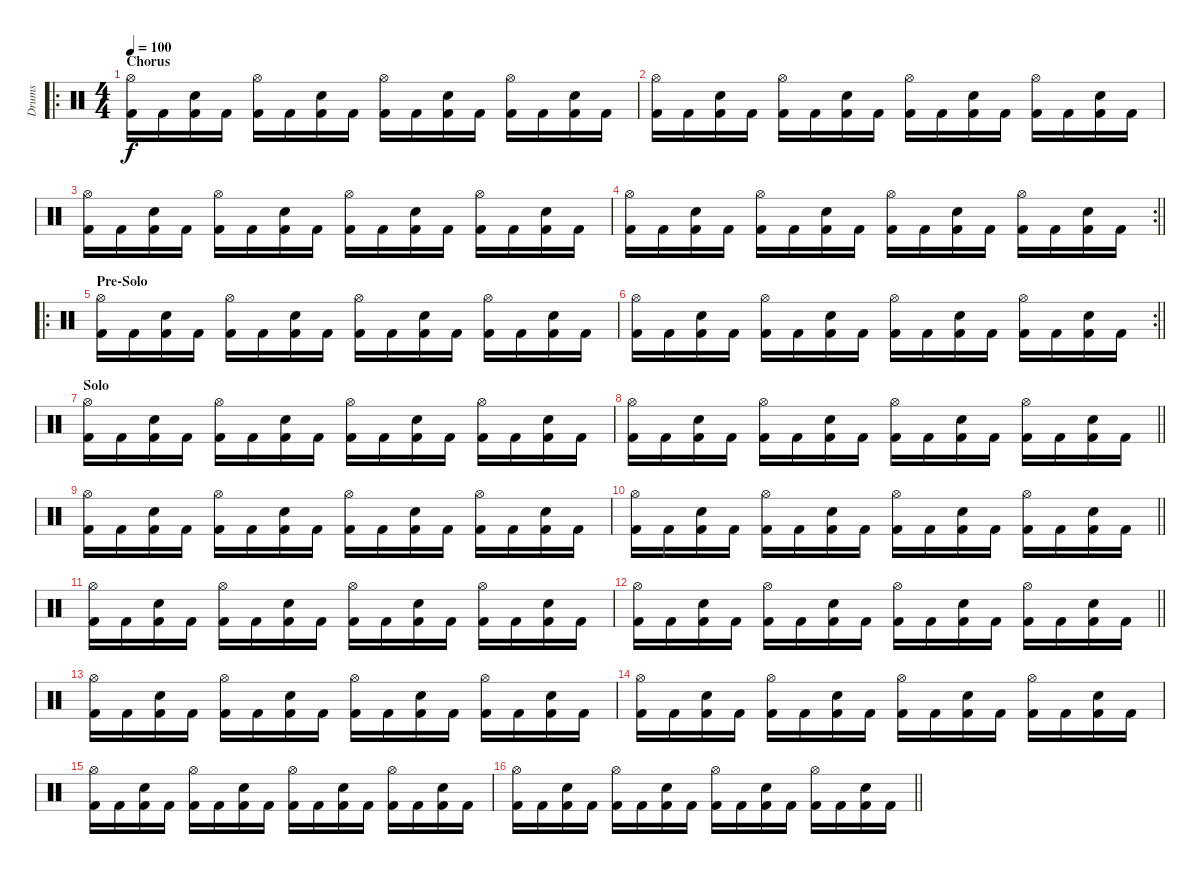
\track ("Drums" "Drums") {instrument percussion}
\staff {score}
\articulation defaults
\ro
\ts (4 4)
\section ("" "Chorus")
\tempo 100
\clef neutral
\ks c
("Hi-Hat (open)" "Kick (hit) 2").16{dy f} "Kick (hit) 2".16 ("Snare (hit) 2" "Kick (hit) 2").16 "Kick (hit) 2".16 ("Hi-Hat (open)" "Kick (hit) 2").16 "Kick (hit) 2".16 ("Snare (hit) 2" "Kick (hit) 2").16 "Kick (hit) 2".16 ("Hi-Hat (open)" "Kick (hit) 2").16 "Kick (hit) 2".16 ("Snare (hit) 2" "Kick (hit) 2").16 "Kick (hit) 2".16 ("Hi-Hat (open)" "Kick (hit) 2").16 "Kick (hit) 2".16 ("Snare (hit) 2" "Kick (hit) 2").16 "Kick (hit) 2".16 |
("Hi-Hat (open)" "Kick (hit) 2").16 "Kick (hit) 2".16 ("Snare (hit) 2" "Kick (hit) 2").16 "Kick (hit) 2".16 ("Hi-Hat (open)" "Kick (hit) 2").16 "Kick (hit) 2".16 ("Snare (hit) 2" "Kick (hit) 2").16 "Kick (hit) 2".16 ("Hi-Hat (open)" "Kick (hit) 2").16 "Kick (hit) 2".16 ("Snare (hit) 2" "Kick (hit) 2").16 "Kick (hit) 2".16 ("Hi-Hat (open)" "Kick (hit) 2").16 "Kick (hit) 2".16 ("Snare (hit) 2" "Kick (hit) 2").16 "Kick (hit) 2".16 |
("Hi-Hat (open)" "Kick (hit) 2").16 "Kick (hit) 2".16 ("Snare (hit) 2" "Kick (hit) 2").16 "Kick (hit) 2".16 ("Hi-Hat (open)" "Kick (hit) 2").16 "Kick (hit) 2".16 ("Snare (hit) 2" "Kick (hit) 2").16 "Kick (hit) 2".16 ("Hi-Hat (open)" "Kick (hit) 2").16 "Kick (hit) 2".16 ("Snare (hit) 2" "Kick (hit) 2").16 "Kick (hit) 2".16 ("Hi-Hat (open)" "Kick (hit) 2").16 "Kick (hit) 2".16 ("Snare (hit) 2" "Kick (hit) 2").16 "Kick (hit) 2".16 |
\rc 2
\barLineRight lightlight
("Hi-Hat (open)" "Kick (hit) 2").16 "Kick (hit) 2".16 ("Snare (hit) 2" "Kick (hit) 2").16 "Kick (hit) 2".16 ("Hi-Hat (open)" "Kick (hit) 2").16 "Kick (hit) 2".16 ("Snare (hit) 2" "Kick (hit) 2").16 "Kick (hit) 2".16 ("Hi-Hat (open)" "Kick (hit) 2").16 "Kick (hit) 2".16 ("Snare (hit) 2" "Kick (hit) 2").16 "Kick (hit) 2".16 ("Hi-Hat (open)" "Kick (hit) 2").16 "Kick (hit) 2".16 ("Snare (hit) 2" "Kick (hit) 2").16 "Kick (hit) 2".16 |
\ro
\section ("" "Pre-Solo")
("Hi-Hat (open)" "Kick (hit) 2").16 "Kick (hit) 2".16 ("Snare (hit) 2" "Kick (hit) 2").16 "Kick (hit) 2".16 ("Hi-Hat (open)" "Kick (hit) 2").16 "Kick (hit) 2".16 ("Snare (hit) 2" "Kick (hit) 2").16 "Kick (hit) 2".16 ("Hi-Hat (open)" "Kick (hit) 2").16 "Kick (hit) 2".16 ("Snare (hit) 2" "Kick (hit) 2").16 "Kick (hit) 2".16 ("Hi-Hat (open)" "Kick (hit) 2").16 "Kick (hit) 2".16 ("Snare (hit) 2" "Kick (hit) 2").16 "Kick (hit) 2".16 |
\rc 2
\barLineRight lightlight
("Hi-Hat (open)" "Kick (hit) 2").16 "Kick (hit) 2".16 ("Snare (hit) 2" "Kick (hit) 2").16 "Kick (hit) 2".16 ("Hi-Hat (open)" "Kick (hit) 2").16 "Kick (hit) 2".16 ("Snare (hit) 2" "Kick (hit) 2").16 "Kick (hit) 2".16 ("Hi-Hat (open)" "Kick (hit) 2").16 "Kick (hit) 2".16 ("Snare (hit) 2" "Kick (hit) 2").16 "Kick (hit) 2".16 ("Hi-Hat (open)" "Kick (hit) 2").16 "Kick (hit) 2".16 ("Snare (hit) 2" "Kick (hit) 2").16 "Kick (hit) 2".16 |
\section ("" "Solo")
("Hi-Hat (open)" "Kick (hit) 2").16 "Kick (hit) 2".16 ("Snare (hit) 2" "Kick (hit) 2").16 "Kick (hit) 2".16 ("Hi-Hat (open)" "Kick (hit) 2").16 "Kick (hit) 2".16 ("Snare (hit) 2" "Kick (hit) 2").16 "Kick (hit) 2".16 ("Hi-Hat (open)" "Kick (hit) 2").16 "Kick (hit) 2".16 ("Snare (hit) 2" "Kick (hit) 2").16 "Kick (hit) 2".16 ("Hi-Hat (open)" "Kick (hit) 2").16 "Kick (hit) 2".16 ("Snare (hit) 2" "Kick (hit) 2").16 "Kick (hit) 2".16 |
\barLineRight lightlight
("Hi-Hat (open)" "Kick (hit) 2").16 "Kick (hit) 2".16 ("Snare (hit) 2" "Kick (hit) 2").16 "Kick (hit) 2".16 ("Hi-Hat (open)" "Kick (hit) 2").16 "Kick (hit) 2".16 ("Snare (hit) 2" "Kick (hit) 2").16 "Kick (hit) 2".16 ("Hi-Hat (open)" "Kick (hit) 2").16 "Kick (hit) 2".16 ("Snare (hit) 2" "Kick (hit) 2").16 "Kick (hit) 2".16 ("Hi-Hat (open)" "Kick (hit) 2").16 "Kick (hit) 2".16 ("Snare (hit) 2" "Kick (hit) 2").16 "Kick (hit) 2".16 |
("Hi-Hat (open)" "Kick (hit) 2").16 "Kick (hit) 2".16 ("Snare (hit) 2" "Kick (hit) 2").16 "Kick (hit) 2".16 ("Hi-Hat (open)" "Kick (hit) 2").16 "Kick (hit) 2".16 ("Snare (hit) 2" "Kick (hit) 2").16 "Kick (hit) 2".16 ("Hi-Hat (open)" "Kick (hit) 2").16 "Kick (hit) 2".16 ("Snare (hit) 2" "Kick (hit) 2").16 "Kick (hit) 2".16 ("Hi-Hat (open)" "Kick (hit) 2").16 "Kick (hit) 2".16 ("Snare (hit) 2" "Kick (hit) 2").16 "Kick (hit) 2".16 |
\barLineRight lightlight
("Hi-Hat (open)" "Kick (hit) 2").16 "Kick (hit) 2".16 ("Snare (hit) 2" "Kick (hit) 2").16 "Kick (hit) 2".16 ("Hi-Hat (open)" "Kick (hit) 2").16 "Kick (hit) 2".16 ("Snare (hit) 2" "Kick (hit) 2").16 "Kick (hit) 2".16 ("Hi-Hat (open)" "Kick (hit) 2").16 "Kick (hit) 2".16 ("Snare (hit) 2" "Kick (hit) 2").16 "Kick (hit) 2".16 ("Hi-Hat (open)" "Kick (hit) 2").16 "Kick (hit) 2".16 ("Snare (hit) 2" "Kick (hit) 2").16 "Kick (hit) 2".16 |
("Hi-Hat (open)" "Kick (hit) 2").16 "Kick (hit) 2".16 ("Snare (hit) 2" "Kick (hit) 2").16 "Kick (hit) 2".16 ("Hi-Hat (open)" "Kick (hit) 2").16 "Kick (hit) 2".16 ("Snare (hit) 2" "Kick (hit) 2").16 "Kick (hit) 2".16 ("Hi-Hat (open)" "Kick (hit) 2").16 "Kick (hit) 2".16 ("Snare (hit) 2" "Kick (hit) 2").16 "Kick (hit) 2".16 ("Hi-Hat (open)" "Kick (hit) 2").16 "Kick (hit) 2".16 ("Snare (hit) 2" "Kick (hit) 2").16 "Kick (hit) 2".16 |
\barLineRight lightlight
("Hi-Hat (open)" "Kick (hit) 2").16 "Kick (hit) 2".16 ("Snare (hit) 2" "Kick (hit) 2").16 "Kick (hit) 2".16 ("Hi-Hat (open)" "Kick (hit) 2").16 "Kick (hit) 2".16 ("Snare (hit) 2" "Kick (hit) 2").16 "Kick (hit) 2".16 ("Hi-Hat (open)" "Kick (hit) 2").16 "Kick (hit) 2".16 ("Snare (hit) 2" "Kick (hit) 2").16 "Kick (hit) 2".16 ("Hi-Hat (open)" "Kick (hit) 2").16 "Kick (hit) 2".16 ("Snare (hit) 2" "Kick (hit) 2").16 "Kick (hit) 2".16 |
("Hi-Hat (open)" "Kick (hit) 2").16 "Kick (hit) 2".16 ("Snare (hit) 2" "Kick (hit) 2").16 "Kick (hit) 2".16 ("Hi-Hat (open)" "Kick (hit) 2").16 "Kick (hit) 2".16 ("Snare (hit) 2" "Kick (hit) 2").16 "Kick (hit) 2".16 ("Hi-Hat (open)" "Kick (hit) 2").16 "Kick (hit) 2".16 ("Snare (hit) 2" "Kick (hit) 2").16 "Kick (hit) 2".16 ("Hi-Hat (open)" "Kick (hit) 2").16 "Kick (hit) 2".16 ("Snare (hit) 2" "Kick (hit) 2").16 "Kick (hit) 2".16 |
("Hi-Hat (open)" "Kick (hit) 2").16 "Kick (hit) 2".16 ("Snare (hit) 2" "Kick (hit) 2").16 "Kick (hit) 2".16 ("Hi-Hat (open)" "Kick (hit) 2").16 "Kick (hit) 2".16 ("Snare (hit) 2" "Kick (hit) 2").16 "Kick (hit) 2".16 ("Hi-Hat (open)" "Kick (hit) 2").16 "Kick (hit) 2".16 ("Snare (hit) 2" "Kick (hit) 2").16 "Kick (hit) 2".16 ("Hi-Hat (open)" "Kick (hit) 2").16 "Kick (hit) 2".16 ("Snare (hit) 2" "Kick (hit) 2").16 "Kick (hit) 2".16 |
("Hi-Hat (open)" "Kick (hit) 2").16 "Kick (hit) 2".16 ("Snare (hit) 2" "Kick (hit) 2").16 "Kick (hit) 2".16 ("Hi-Hat (open)" "Kick (hit) 2").16 "Kick (hit) 2".16 ("Snare (hit) 2" "Kick (hit) 2").16 "Kick (hit) 2".16 ("Hi-Hat (open)" "Kick (hit) 2").16 "Kick (hit) 2".16 ("Snare (hit) 2" "Kick (hit) 2").16 "Kick (hit) 2".16 ("Hi-Hat (open)" "Kick (hit) 2").16 "Kick (hit) 2".16 ("Snare (hit) 2" "Kick (hit) 2").16 "Kick (hit) 2".16 |
\barLineRight lightlight
("Hi-Hat (open)" "Kick (hit) 2").16 "Kick (hit) 2".16 ("Snare (hit) 2" "Kick (hit) 2").16 "Kick (hit) 2".16 ("Hi-Hat (open)" "Kick (hit) 2").16 "Kick (hit) 2".16 ("Snare (hit) 2" "Kick (hit) 2").16 "Kick (hit) 2".16 ("Hi-Hat (open)" "Kick (hit) 2").16 "Kick (hit) 2".16 ("Snare (hit) 2" "Kick (hit) 2").16 "Kick (hit) 2".16 ("Hi-Hat (open)" "Kick (hit) 2").16 "Kick (hit) 2".16 ("Snare (hit) 2" "Kick (hit) 2").16 "Kick (hit) 2".16
